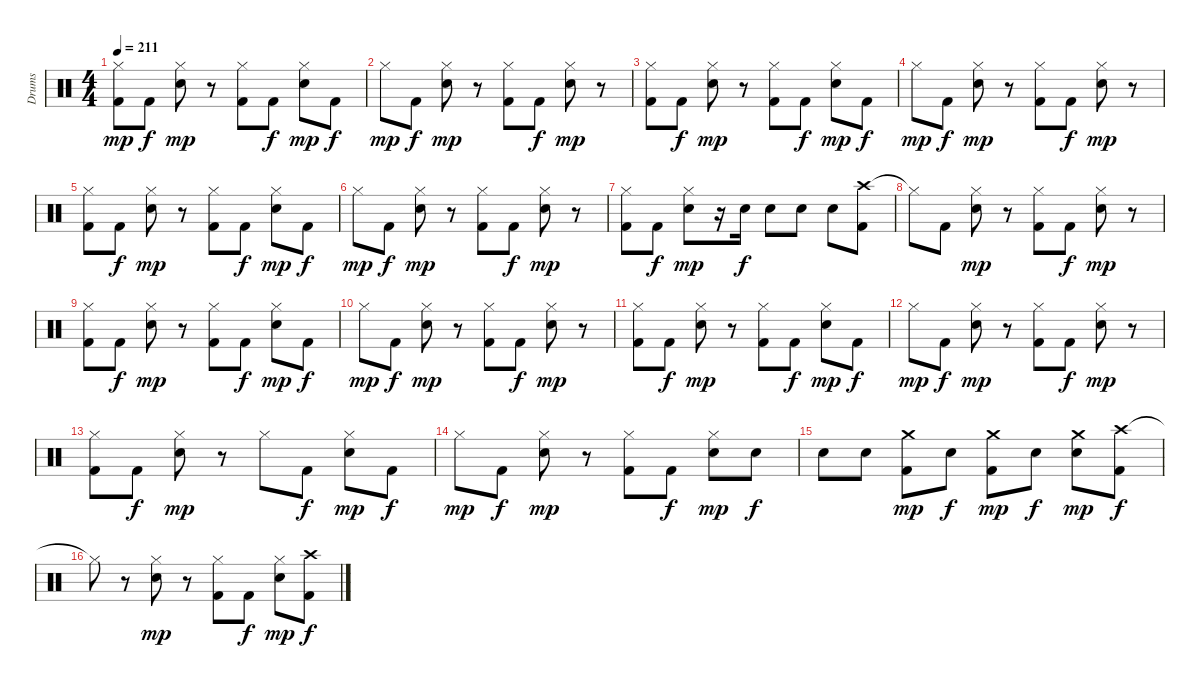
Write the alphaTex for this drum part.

\track ("Drums" "Drums") {instrument percussion}
\staff {score}
\articulation defaults
\ts (4 4)
\tempo 211
\clef neutral
\ks c
("Hi-Hat (closed)" "Kick (hit) 2").8{dy mp} "Kick (hit) 2".8{dy f} ("Hi-Hat (closed)" "Snare (hit) 2").8{dy mp} r.8 ("Hi-Hat (closed)" "Kick (hit) 2").8 "Kick (hit) 2".8{dy f} ("Hi-Hat (closed)" "Snare (hit) 2").8{dy mp} "Kick (hit) 2".8{dy f} |
"Hi-Hat (closed)".8{dy mp} "Kick (hit) 2".8{dy f} ("Hi-Hat (closed)" "Snare (hit) 2").8{dy mp} r.8 ("Hi-Hat (closed)" "Kick (hit) 2").8 "Kick (hit) 2".8{dy f} ("Hi-Hat (closed)" "Snare (hit) 2").8{dy mp} r.8 |
("Hi-Hat (closed)" "Kick (hit) 2").8 "Kick (hit) 2".8{dy f} ("Hi-Hat (closed)" "Snare (hit) 2").8{dy mp} r.8 ("Hi-Hat (closed)" "Kick (hit) 2").8 "Kick (hit) 2".8{dy f} ("Hi-Hat (closed)" "Snare (hit) 2").8{dy mp} "Kick (hit) 2".8{dy f} |
"Hi-Hat (closed)".8{dy mp} "Kick (hit) 2".8{dy f} ("Hi-Hat (closed)" "Snare (hit) 2").8{dy mp} r.8 ("Hi-Hat (closed)" "Kick (hit) 2").8 "Kick (hit) 2".8{dy f} ("Hi-Hat (closed)" "Snare (hit) 2").8{dy mp} r.8 |
("Hi-Hat (closed)" "Kick (hit) 2").8 "Kick (hit) 2".8{dy f} ("Hi-Hat (closed)" "Snare (hit) 2").8{dy mp} r.8 ("Hi-Hat (closed)" "Kick (hit) 2").8 "Kick (hit) 2".8{dy f} ("Hi-Hat (closed)" "Snare (hit) 2").8{dy mp} "Kick (hit) 2".8{dy f} |
"Hi-Hat (closed)".8{dy mp} "Kick (hit) 2".8{dy f} ("Hi-Hat (closed)" "Snare (hit) 2").8{dy mp} r.8 ("Hi-Hat (closed)" "Kick (hit) 2").8 "Kick (hit) 2".8{dy f} ("Hi-Hat (closed)" "Snare (hit) 2").8{dy mp} r.8 |
("Hi-Hat (closed)" "Kick (hit) 2").8 "Kick (hit) 2".8{dy f} ("Hi-Hat (closed)" "Snare (hit) 2").8{dy mp} r.16 "Snare (hit) 2".16{dy f} "Snare (hit) 2".8 "Snare (hit) 2".8 "Snare (hit) 2".8 ("Crash high (hit)" "Kick (hit) 2").8 |
"Hi-Hat (closed)"{t}.8 "Kick (hit) 2".8 ("Hi-Hat (closed)" "Snare (hit) 2").8{dy mp} r.8 ("Hi-Hat (closed)" "Kick (hit) 2").8 "Kick (hit) 2".8{dy f} ("Hi-Hat (closed)" "Snare (hit) 2").8{dy mp} r.8 |
("Hi-Hat (closed)" "Kick (hit) 2").8 "Kick (hit) 2".8{dy f} ("Hi-Hat (closed)" "Snare (hit) 2").8{dy mp} r.8 ("Hi-Hat (closed)" "Kick (hit) 2").8 "Kick (hit) 2".8{dy f} ("Hi-Hat (closed)" "Snare (hit) 2").8{dy mp} "Kick (hit) 2".8{dy f} |
"Hi-Hat (closed)".8{dy mp} "Kick (hit) 2".8{dy f} ("Hi-Hat (closed)" "Snare (hit) 2").8{dy mp} r.8 ("Hi-Hat (closed)" "Kick (hit) 2").8 "Kick (hit) 2".8{dy f} ("Hi-Hat (closed)" "Snare (hit) 2").8{dy mp} r.8 |
("Hi-Hat (closed)" "Kick (hit) 2").8 "Kick (hit) 2".8{dy f} ("Hi-Hat (closed)" "Snare (hit) 2").8{dy mp} r.8 ("Hi-Hat (closed)" "Kick (hit) 2").8 "Kick (hit) 2".8{dy f} ("Hi-Hat (closed)" "Snare (hit) 2").8{dy mp} "Kick (hit) 2".8{dy f} |
"Hi-Hat (closed)".8{dy mp} "Kick (hit) 2".8{dy f} ("Hi-Hat (closed)" "Snare (hit) 2").8{dy mp} r.8 ("Hi-Hat (closed)" "Kick (hit) 2").8 "Kick (hit) 2".8{dy f} ("Hi-Hat (closed)" "Snare (hit) 2").8{dy mp} r.8 |
("Hi-Hat (closed)" "Kick (hit) 2").8 "Kick (hit) 2".8{dy f} ("Hi-Hat (closed)" "Snare (hit) 2").8{dy mp} r.8 "Hi-Hat (closed)".8 "Kick (hit) 2".8{dy f} ("Hi-Hat (closed)" "Snare (hit) 2").8{dy mp} "Kick (hit) 2".8{dy f} |
"Hi-Hat (closed)".8{dy mp} "Kick (hit) 2".8{dy f} ("Hi-Hat (closed)" "Snare (hit) 2").8{dy mp} r.8 ("Hi-Hat (closed)" "Kick (hit) 2").8 "Kick (hit) 2".8{dy f} ("Hi-Hat (closed)" "Snare (hit) 2").8{dy mp} "Snare (hit) 2".8{dy f} |
"Snare (hit) 2".8 "Snare (hit) 2".8 ("Crash medium (hit)" "Kick (hit) 2").8{dy mp} "Snare (hit) 2".8{dy f} ("Crash medium (hit)" "Kick (hit) 2").8{dy mp} "Snare (hit) 2".8{dy f} ("Crash medium (hit)" "Snare (hit) 2").8{dy mp} ("Crash high (hit)" "Kick (hit) 2").8{dy f} |
"Hi-Hat (closed)"{t}.8 r.8 ("Hi-Hat (closed)" "Snare (hit) 2").8{dy mp} r.8 ("Hi-Hat (closed)" "Kick (hit) 2").8 "Kick (hit) 2".8{dy f} ("Hi-Hat (closed)" "Snare (hit) 2").8{dy mp} ("Crash high (hit)" "Kick (hit) 2").8{dy f}
